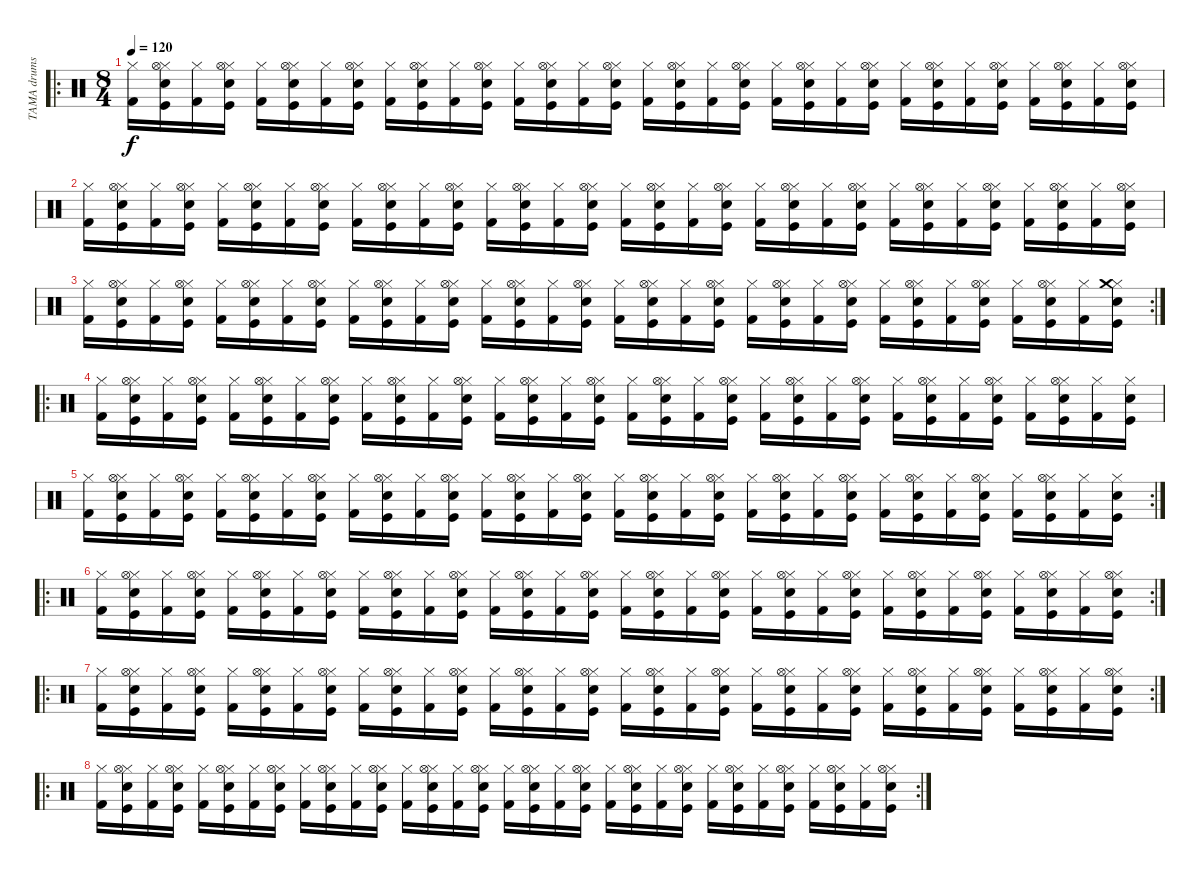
\track ("TAMA drums" "TAMA drums") {instrument percussion}
\staff {score}
\articulation defaults
\ro
\ts (8 4)
\tempo 120
\clef neutral
\ks c
("Hi-Hat (closed)" "Kick (hit) 2").16{dy f} ("Hi-Hat (closed)" "Kick (hit)" "Snare (hit) 2" "Hi-Hat (open)").16 ("Hi-Hat (closed)" "Kick (hit) 2").16 ("Hi-Hat (closed)" "Kick (hit)" "Snare (hit) 2" "Hi-Hat (open)").16 ("Hi-Hat (closed)" "Kick (hit) 2").16 ("Hi-Hat (closed)" "Kick (hit)" "Snare (hit) 2" "Hi-Hat (open)").16 ("Hi-Hat (closed)" "Kick (hit) 2").16 ("Hi-Hat (closed)" "Kick (hit)" "Snare (hit) 2" "Hi-Hat (open)").16 ("Hi-Hat (closed)" "Kick (hit) 2").16 ("Hi-Hat (closed)" "Kick (hit)" "Snare (hit) 2" "Hi-Hat (open)").16 ("Hi-Hat (closed)" "Kick (hit) 2").16 ("Hi-Hat (closed)" "Kick (hit)" "Snare (hit) 2" "Hi-Hat (open)").16 ("Hi-Hat (closed)" "Kick (hit) 2").16 ("Hi-Hat (closed)" "Kick (hit)" "Snare (hit) 2" "Hi-Hat (open)").16 ("Hi-Hat (closed)" "Kick (hit) 2").16 ("Hi-Hat (closed)" "Kick (hit)" "Snare (hit) 2" "Hi-Hat (open)").16 ("Hi-Hat (closed)" "Kick (hit) 2").16 ("Hi-Hat (closed)" "Kick (hit)" "Snare (hit) 2" "Hi-Hat (open)").16 ("Hi-Hat (closed)" "Kick (hit) 2").16 ("Hi-Hat (closed)" "Kick (hit)" "Snare (hit) 2" "Hi-Hat (open)").16 ("Hi-Hat (closed)" "Kick (hit) 2").16 ("Hi-Hat (closed)" "Kick (hit)" "Snare (hit) 2" "Hi-Hat (open)").16 ("Hi-Hat (closed)" "Kick (hit) 2").16 ("Hi-Hat (closed)" "Kick (hit)" "Snare (hit) 2" "Hi-Hat (open)").16 ("Hi-Hat (closed)" "Kick (hit) 2").16 ("Hi-Hat (closed)" "Kick (hit)" "Snare (hit) 2" "Hi-Hat (open)").16 ("Hi-Hat (closed)" "Kick (hit) 2").16 ("Hi-Hat (closed)" "Kick (hit)" "Snare (hit) 2" "Hi-Hat (open)").16 ("Hi-Hat (closed)" "Kick (hit) 2").16 ("Hi-Hat (closed)" "Kick (hit)" "Snare (hit) 2" "Hi-Hat (open)").16 ("Hi-Hat (closed)" "Kick (hit) 2").16 ("Hi-Hat (closed)" "Kick (hit)" "Snare (hit) 2" "Hi-Hat (open)").16 |
("Hi-Hat (closed)" "Kick (hit) 2").16 ("Hi-Hat (closed)" "Kick (hit)" "Snare (hit) 2" "Hi-Hat (open)").16 ("Hi-Hat (closed)" "Kick (hit) 2").16 ("Hi-Hat (closed)" "Kick (hit)" "Snare (hit) 2" "Hi-Hat (open)").16 ("Hi-Hat (closed)" "Kick (hit) 2").16 ("Hi-Hat (closed)" "Kick (hit)" "Snare (hit) 2" "Hi-Hat (open)").16 ("Hi-Hat (closed)" "Kick (hit) 2").16 ("Hi-Hat (closed)" "Kick (hit)" "Snare (hit) 2" "Hi-Hat (open)").16 ("Hi-Hat (closed)" "Kick (hit) 2").16 ("Hi-Hat (closed)" "Kick (hit)" "Snare (hit) 2" "Hi-Hat (open)").16 ("Hi-Hat (closed)" "Kick (hit) 2").16 ("Hi-Hat (closed)" "Kick (hit)" "Snare (hit) 2" "Hi-Hat (open)").16 ("Hi-Hat (closed)" "Kick (hit) 2").16 ("Hi-Hat (closed)" "Kick (hit)" "Snare (hit) 2" "Hi-Hat (open)").16 ("Hi-Hat (closed)" "Kick (hit) 2").16 ("Hi-Hat (closed)" "Kick (hit)" "Snare (hit) 2" "Hi-Hat (open)").16 ("Hi-Hat (closed)" "Kick (hit) 2").16 ("Hi-Hat (closed)" "Kick (hit)" "Snare (hit) 2" "Hi-Hat (open)").16 ("Hi-Hat (closed)" "Kick (hit) 2").16 ("Hi-Hat (closed)" "Kick (hit)" "Snare (hit) 2" "Hi-Hat (open)").16 ("Hi-Hat (closed)" "Kick (hit) 2").16 ("Hi-Hat (closed)" "Kick (hit)" "Snare (hit) 2" "Hi-Hat (open)").16 ("Hi-Hat (closed)" "Kick (hit) 2").16 ("Hi-Hat (closed)" "Kick (hit)" "Snare (hit) 2" "Hi-Hat (open)").16 ("Hi-Hat (closed)" "Kick (hit) 2").16 ("Hi-Hat (closed)" "Kick (hit)" "Snare (hit) 2" "Hi-Hat (open)").16 ("Hi-Hat (closed)" "Kick (hit) 2").16 ("Hi-Hat (closed)" "Kick (hit)" "Snare (hit) 2" "Hi-Hat (open)").16 ("Hi-Hat (closed)" "Kick (hit) 2").16 ("Hi-Hat (closed)" "Kick (hit)" "Snare (hit) 2" "Hi-Hat (open)").16 ("Hi-Hat (closed)" "Kick (hit) 2").16 ("Hi-Hat (closed)" "Kick (hit)" "Snare (hit) 2" "Hi-Hat (open)").16 |
\rc 2
("Hi-Hat (closed)" "Kick (hit) 2").16 ("Hi-Hat (closed)" "Kick (hit)" "Snare (hit) 2" "Hi-Hat (open)").16 ("Hi-Hat (closed)" "Kick (hit) 2").16 ("Hi-Hat (closed)" "Kick (hit)" "Snare (hit) 2" "Hi-Hat (open)").16 ("Hi-Hat (closed)" "Kick (hit) 2").16 ("Hi-Hat (closed)" "Kick (hit)" "Snare (hit) 2" "Hi-Hat (open)").16 ("Hi-Hat (closed)" "Kick (hit) 2").16 ("Hi-Hat (closed)" "Kick (hit)" "Snare (hit) 2" "Hi-Hat (open)").16 ("Hi-Hat (closed)" "Kick (hit) 2").16 ("Hi-Hat (closed)" "Kick (hit)" "Snare (hit) 2" "Hi-Hat (open)").16 ("Hi-Hat (closed)" "Kick (hit) 2").16 ("Hi-Hat (closed)" "Kick (hit)" "Snare (hit) 2" "Hi-Hat (open)").16 ("Hi-Hat (closed)" "Kick (hit) 2").16 ("Hi-Hat (closed)" "Kick (hit)" "Snare (hit) 2" "Hi-Hat (open)").16 ("Hi-Hat (closed)" "Kick (hit) 2").16 ("Hi-Hat (closed)" "Kick (hit)" "Snare (hit) 2" "Hi-Hat (open)").16 ("Hi-Hat (closed)" "Kick (hit) 2").16 ("Hi-Hat (closed)" "Kick (hit)" "Snare (hit) 2" "Hi-Hat (open)").16 ("Hi-Hat (closed)" "Kick (hit) 2").16 ("Hi-Hat (closed)" "Kick (hit)" "Snare (hit) 2" "Hi-Hat (open)").16 ("Hi-Hat (closed)" "Kick (hit) 2").16 ("Hi-Hat (closed)" "Kick (hit)" "Snare (hit) 2" "Hi-Hat (open)").16 ("Hi-Hat (closed)" "Kick (hit) 2").16 ("Hi-Hat (closed)" "Kick (hit)" "Snare (hit) 2" "Hi-Hat (open)").16 ("Hi-Hat (closed)" "Kick (hit) 2").16 ("Hi-Hat (closed)" "Kick (hit)" "Snare (hit) 2" "Hi-Hat (open)").16 ("Hi-Hat (closed)" "Kick (hit) 2").16 ("Hi-Hat (closed)" "Kick (hit)" "Snare (hit) 2" "Hi-Hat (open)").16 ("Hi-Hat (closed)" "Kick (hit) 2").16 ("Hi-Hat (closed)" "Kick (hit)" "Snare (hit) 2" "Hi-Hat (open)").16 ("Hi-Hat (closed)" "Kick (hit) 2").16 ("Hi-Hat (closed)" "Kick (hit)" "Snare (hit) 2" "Crash medium (hit)").16 |
\ro
("Hi-Hat (closed)" "Kick (hit) 2").16 ("Hi-Hat (closed)" "Kick (hit)" "Snare (hit) 2" "Hi-Hat (open)").16 ("Hi-Hat (closed)" "Kick (hit) 2").16 ("Hi-Hat (closed)" "Kick (hit)" "Snare (hit) 2" "Hi-Hat (open)").16 ("Hi-Hat (closed)" "Kick (hit) 2").16 ("Hi-Hat (closed)" "Kick (hit)" "Snare (hit) 2" "Hi-Hat (open)").16 ("Hi-Hat (closed)" "Kick (hit) 2").16 ("Hi-Hat (closed)" "Kick (hit)" "Snare (hit) 2" "Hi-Hat (open)").16 ("Hi-Hat (closed)" "Kick (hit) 2").16 ("Hi-Hat (closed)" "Kick (hit)" "Snare (hit) 2" "Hi-Hat (open)").16 ("Hi-Hat (closed)" "Kick (hit) 2").16 ("Hi-Hat (closed)" "Kick (hit)" "Snare (hit) 2" "Hi-Hat (open)").16 ("Hi-Hat (closed)" "Kick (hit) 2").16 ("Hi-Hat (closed)" "Kick (hit)" "Snare (hit) 2" "Hi-Hat (open)").16 ("Hi-Hat (closed)" "Kick (hit) 2").16 ("Hi-Hat (closed)" "Kick (hit)" "Snare (hit) 2" "Hi-Hat (open)").16 ("Hi-Hat (closed)" "Kick (hit) 2").16 ("Hi-Hat (closed)" "Kick (hit)" "Snare (hit) 2" "Hi-Hat (open)").16 ("Hi-Hat (closed)" "Kick (hit) 2").16 ("Hi-Hat (closed)" "Kick (hit)" "Snare (hit) 2" "Hi-Hat (open)").16 ("Hi-Hat (closed)" "Kick (hit) 2").16 ("Hi-Hat (closed)" "Kick (hit)" "Snare (hit) 2" "Hi-Hat (open)").16 ("Hi-Hat (closed)" "Kick (hit) 2").16 ("Hi-Hat (closed)" "Kick (hit)" "Snare (hit) 2" "Hi-Hat (open)").16 ("Hi-Hat (closed)" "Kick (hit) 2").16 ("Hi-Hat (closed)" "Kick (hit)" "Snare (hit) 2" "Hi-Hat (open)").16 ("Hi-Hat (closed)" "Kick (hit) 2").16 ("Hi-Hat (closed)" "Kick (hit)" "Snare (hit) 2" "Hi-Hat (open)").16 ("Hi-Hat (closed)" "Kick (hit) 2").16 ("Hi-Hat (closed)" "Kick (hit)" "Snare (hit) 2" "Hi-Hat (open)").16 ("Hi-Hat (closed)" "Kick (hit) 2").16 ("Hi-Hat (closed)" "Kick (hit)" "Snare (hit) 2").16 |
\rc 2
("Hi-Hat (closed)" "Kick (hit) 2").16 ("Hi-Hat (closed)" "Kick (hit)" "Snare (hit) 2" "Hi-Hat (open)").16 ("Hi-Hat (closed)" "Kick (hit) 2").16 ("Hi-Hat (closed)" "Kick (hit)" "Snare (hit) 2" "Hi-Hat (open)").16 ("Hi-Hat (closed)" "Kick (hit) 2").16 ("Hi-Hat (closed)" "Kick (hit)" "Snare (hit) 2" "Hi-Hat (open)").16 ("Hi-Hat (closed)" "Kick (hit) 2").16 ("Hi-Hat (closed)" "Kick (hit)" "Snare (hit) 2" "Hi-Hat (open)").16 ("Hi-Hat (closed)" "Kick (hit) 2").16 ("Hi-Hat (closed)" "Kick (hit)" "Snare (hit) 2" "Hi-Hat (open)").16 ("Hi-Hat (closed)" "Kick (hit) 2").16 ("Hi-Hat (closed)" "Kick (hit)" "Snare (hit) 2" "Hi-Hat (open)").16 ("Hi-Hat (closed)" "Kick (hit) 2").16 ("Hi-Hat (closed)" "Kick (hit)" "Snare (hit) 2" "Hi-Hat (open)").16 ("Hi-Hat (closed)" "Kick (hit) 2").16 ("Hi-Hat (closed)" "Kick (hit)" "Snare (hit) 2" "Hi-Hat (open)").16 ("Hi-Hat (closed)" "Kick (hit) 2").16 ("Hi-Hat (closed)" "Kick (hit)" "Snare (hit) 2" "Hi-Hat (open)").16 ("Hi-Hat (closed)" "Kick (hit) 2").16 ("Hi-Hat (closed)" "Kick (hit)" "Snare (hit) 2" "Hi-Hat (open)").16 ("Hi-Hat (closed)" "Kick (hit) 2").16 ("Hi-Hat (closed)" "Kick (hit)" "Snare (hit) 2" "Hi-Hat (open)").16 ("Hi-Hat (closed)" "Kick (hit) 2").16 ("Hi-Hat (closed)" "Kick (hit)" "Snare (hit) 2" "Hi-Hat (open)").16 ("Hi-Hat (closed)" "Kick (hit) 2").16 ("Hi-Hat (closed)" "Kick (hit)" "Snare (hit) 2" "Hi-Hat (open)").16 ("Hi-Hat (closed)" "Kick (hit) 2").16 ("Hi-Hat (closed)" "Kick (hit)" "Snare (hit) 2" "Hi-Hat (open)").16 ("Hi-Hat (closed)" "Kick (hit) 2").16 ("Hi-Hat (closed)" "Kick (hit)" "Snare (hit) 2" "Hi-Hat (open)").16 ("Hi-Hat (closed)" "Kick (hit) 2").16 ("Hi-Hat (closed)" "Kick (hit)" "Snare (hit) 2").16 |
\ro
\rc 2
("Hi-Hat (closed)" "Kick (hit) 2").16 ("Hi-Hat (closed)" "Kick (hit)" "Snare (hit) 2" "Hi-Hat (open)").16 ("Hi-Hat (closed)" "Kick (hit) 2").16 ("Hi-Hat (closed)" "Kick (hit)" "Snare (hit) 2" "Hi-Hat (open)").16 ("Hi-Hat (closed)" "Kick (hit) 2").16 ("Hi-Hat (closed)" "Kick (hit)" "Snare (hit) 2" "Hi-Hat (open)").16 ("Hi-Hat (closed)" "Kick (hit) 2").16 ("Hi-Hat (closed)" "Kick (hit)" "Snare (hit) 2" "Hi-Hat (open)").16 ("Hi-Hat (closed)" "Kick (hit) 2").16 ("Hi-Hat (closed)" "Kick (hit)" "Snare (hit) 2" "Hi-Hat (open)").16 ("Hi-Hat (closed)" "Kick (hit) 2").16 ("Hi-Hat (closed)" "Kick (hit)" "Snare (hit) 2" "Hi-Hat (open)").16 ("Hi-Hat (closed)" "Kick (hit) 2").16 ("Hi-Hat (closed)" "Kick (hit)" "Snare (hit) 2" "Hi-Hat (open)").16 ("Hi-Hat (closed)" "Kick (hit) 2").16 ("Hi-Hat (closed)" "Kick (hit)" "Snare (hit) 2" "Hi-Hat (open)").16 ("Hi-Hat (closed)" "Kick (hit) 2").16 ("Hi-Hat (closed)" "Kick (hit)" "Snare (hit) 2" "Hi-Hat (open)").16 ("Hi-Hat (closed)" "Kick (hit) 2").16 ("Hi-Hat (closed)" "Kick (hit)" "Snare (hit) 2" "Hi-Hat (open)").16 ("Hi-Hat (closed)" "Kick (hit) 2").16 ("Hi-Hat (closed)" "Kick (hit)" "Snare (hit) 2" "Hi-Hat (open)").16 ("Hi-Hat (closed)" "Kick (hit) 2").16 ("Hi-Hat (closed)" "Kick (hit)" "Snare (hit) 2" "Hi-Hat (open)").16 ("Hi-Hat (closed)" "Kick (hit) 2").16 ("Hi-Hat (closed)" "Kick (hit)" "Snare (hit) 2" "Hi-Hat (open)").16 ("Hi-Hat (closed)" "Kick (hit) 2").16 ("Hi-Hat (closed)" "Kick (hit)" "Snare (hit) 2" "Hi-Hat (open)").16 ("Hi-Hat (closed)" "Kick (hit) 2").16 ("Hi-Hat (closed)" "Kick (hit)" "Snare (hit) 2" "Hi-Hat (open)").16 ("Hi-Hat (closed)" "Kick (hit) 2").16 ("Hi-Hat (closed)" "Kick (hit)" "Snare (hit) 2" "Hi-Hat (open)").16 |
\ro
\rc 2
("Hi-Hat (closed)" "Kick (hit) 2").16 ("Hi-Hat (closed)" "Kick (hit)" "Snare (hit) 2" "Hi-Hat (open)").16 ("Hi-Hat (closed)" "Kick (hit) 2").16 ("Hi-Hat (closed)" "Kick (hit)" "Snare (hit) 2" "Hi-Hat (open)").16 ("Hi-Hat (closed)" "Kick (hit) 2").16 ("Hi-Hat (closed)" "Kick (hit)" "Snare (hit) 2" "Hi-Hat (open)").16 ("Hi-Hat (closed)" "Kick (hit) 2").16 ("Hi-Hat (closed)" "Kick (hit)" "Snare (hit) 2" "Hi-Hat (open)").16 ("Hi-Hat (closed)" "Kick (hit) 2").16 ("Hi-Hat (closed)" "Kick (hit)" "Snare (hit) 2" "Hi-Hat (open)").16 ("Hi-Hat (closed)" "Kick (hit) 2").16 ("Hi-Hat (closed)" "Kick (hit)" "Snare (hit) 2" "Hi-Hat (open)").16 ("Hi-Hat (closed)" "Kick (hit) 2").16 ("Hi-Hat (closed)" "Kick (hit)" "Snare (hit) 2" "Hi-Hat (open)").16 ("Hi-Hat (closed)" "Kick (hit) 2").16 ("Hi-Hat (closed)" "Kick (hit)" "Snare (hit) 2" "Hi-Hat (open)").16 ("Hi-Hat (closed)" "Kick (hit) 2").16 ("Hi-Hat (closed)" "Kick (hit)" "Snare (hit) 2" "Hi-Hat (open)").16 ("Hi-Hat (closed)" "Kick (hit) 2").16 ("Hi-Hat (closed)" "Kick (hit)" "Snare (hit) 2" "Hi-Hat (open)").16 ("Hi-Hat (closed)" "Kick (hit) 2").16 ("Hi-Hat (closed)" "Kick (hit)" "Snare (hit) 2" "Hi-Hat (open)").16 ("Hi-Hat (closed)" "Kick (hit) 2").16 ("Hi-Hat (closed)" "Kick (hit)" "Snare (hit) 2" "Hi-Hat (open)").16 ("Hi-Hat (closed)" "Kick (hit) 2").16 ("Hi-Hat (closed)" "Kick (hit)" "Snare (hit) 2" "Hi-Hat (open)").16 ("Hi-Hat (closed)" "Kick (hit) 2").16 ("Hi-Hat (closed)" "Kick (hit)" "Snare (hit) 2" "Hi-Hat (open)").16 ("Hi-Hat (closed)" "Kick (hit) 2").16 ("Hi-Hat (closed)" "Kick (hit)" "Snare (hit) 2" "Hi-Hat (open)").16 ("Hi-Hat (closed)" "Kick (hit) 2").16 ("Hi-Hat (closed)" "Kick (hit)" "Snare (hit) 2" "Hi-Hat (open)").16 |
\ro
\rc 2
("Hi-Hat (closed)" "Kick (hit) 2").16 ("Hi-Hat (closed)" "Kick (hit)" "Snare (hit) 2" "Hi-Hat (open)").16 ("Hi-Hat (closed)" "Kick (hit) 2").16 ("Hi-Hat (closed)" "Kick (hit)" "Snare (hit) 2" "Hi-Hat (open)").16 ("Hi-Hat (closed)" "Kick (hit) 2").16 ("Hi-Hat (closed)" "Kick (hit)" "Snare (hit) 2" "Hi-Hat (open)").16 ("Hi-Hat (closed)" "Kick (hit) 2").16 ("Hi-Hat (closed)" "Kick (hit)" "Snare (hit) 2" "Hi-Hat (open)").16 ("Hi-Hat (closed)" "Kick (hit) 2").16 ("Hi-Hat (closed)" "Kick (hit)" "Snare (hit) 2" "Hi-Hat (open)").16 ("Hi-Hat (closed)" "Kick (hit) 2").16 ("Hi-Hat (closed)" "Kick (hit)" "Snare (hit) 2" "Hi-Hat (open)").16 ("Hi-Hat (closed)" "Kick (hit) 2").16 ("Hi-Hat (closed)" "Kick (hit)" "Snare (hit) 2" "Hi-Hat (open)").16 ("Hi-Hat (closed)" "Kick (hit) 2").16 ("Hi-Hat (closed)" "Kick (hit)" "Snare (hit) 2" "Hi-Hat (open)").16 ("Hi-Hat (closed)" "Kick (hit) 2").16 ("Hi-Hat (closed)" "Kick (hit)" "Snare (hit) 2" "Hi-Hat (open)").16 ("Hi-Hat (closed)" "Kick (hit) 2").16 ("Hi-Hat (closed)" "Kick (hit)" "Snare (hit) 2" "Hi-Hat (open)").16 ("Hi-Hat (closed)" "Kick (hit) 2").16 ("Hi-Hat (closed)" "Kick (hit)" "Snare (hit) 2" "Hi-Hat (open)").16 ("Hi-Hat (closed)" "Kick (hit) 2").16 ("Hi-Hat (closed)" "Kick (hit)" "Snare (hit) 2" "Hi-Hat (open)").16 ("Hi-Hat (closed)" "Kick (hit) 2").16 ("Hi-Hat (closed)" "Kick (hit)" "Snare (hit) 2" "Hi-Hat (open)").16 ("Hi-Hat (closed)" "Kick (hit) 2").16 ("Hi-Hat (closed)" "Kick (hit)" "Snare (hit) 2" "Hi-Hat (open)").16 ("Hi-Hat (closed)" "Kick (hit) 2").16 ("Hi-Hat (closed)" "Kick (hit)" "Snare (hit) 2" "Hi-Hat (open)").16 ("Hi-Hat (closed)" "Kick (hit) 2").16 ("Hi-Hat (closed)" "Kick (hit)" "Snare (hit) 2" "Hi-Hat (open)").16
